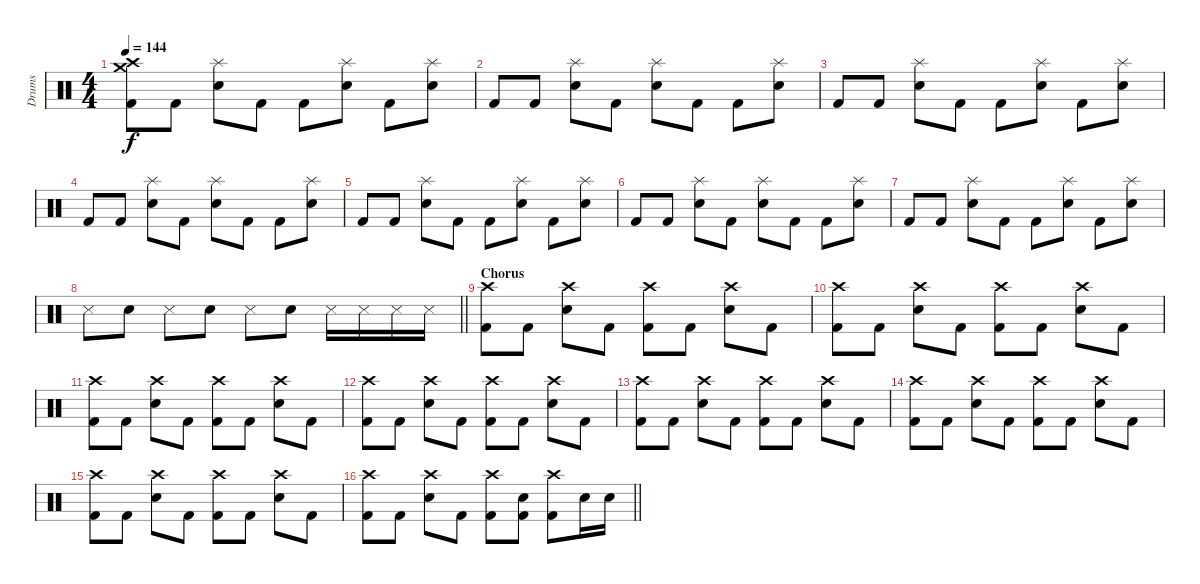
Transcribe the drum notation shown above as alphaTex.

\track ("Drums" "Drums") {instrument percussion}
\staff {score}
\articulation defaults
\ts (4 4)
\tempo 144
\clef neutral
\ks c
("Crash high (hit)" "Crash medium (hit)" "Kick (hit) 2").8{dy f} "Kick (hit) 2".8 ("Splash (hit)" "Electric Snare (hit)").8 "Kick (hit) 2".8 "Kick (hit) 2".8 ("Splash (hit)" "Electric Snare (hit)").8 "Kick (hit) 2".8 ("Splash (hit)" "Electric Snare (hit)").8 |
"Kick (hit) 2".8 "Kick (hit) 2".8 ("Splash (hit)" "Electric Snare (hit)").8 "Kick (hit) 2".8 ("Splash (hit)" "Electric Snare (hit)").8 "Kick (hit) 2".8 "Kick (hit) 2".8 ("Splash (hit)" "Electric Snare (hit)").8 |
"Kick (hit) 2".8 "Kick (hit) 2".8 ("Splash (hit)" "Electric Snare (hit)").8 "Kick (hit) 2".8 "Kick (hit) 2".8 ("Splash (hit)" "Electric Snare (hit)").8 "Kick (hit) 2".8 ("Splash (hit)" "Electric Snare (hit)").8 |
"Kick (hit) 2".8 "Kick (hit) 2".8 ("Splash (hit)" "Electric Snare (hit)").8 "Kick (hit) 2".8 ("Splash (hit)" "Electric Snare (hit)").8 "Kick (hit) 2".8 "Kick (hit) 2".8 ("Splash (hit)" "Electric Snare (hit)").8 |
"Kick (hit) 2".8 "Kick (hit) 2".8 ("Splash (hit)" "Electric Snare (hit)").8 "Kick (hit) 2".8 "Kick (hit) 2".8 ("Splash (hit)" "Electric Snare (hit)").8 "Kick (hit) 2".8 ("Splash (hit)" "Electric Snare (hit)").8 |
"Kick (hit) 2".8 "Kick (hit) 2".8 ("Splash (hit)" "Electric Snare (hit)").8 "Kick (hit) 2".8 ("Splash (hit)" "Electric Snare (hit)").8 "Kick (hit) 2".8 "Kick (hit) 2".8 ("Splash (hit)" "Electric Snare (hit)").8 |
"Kick (hit) 2".8 "Kick (hit) 2".8 ("Splash (hit)" "Electric Snare (hit)").8 "Kick (hit) 2".8 "Kick (hit) 2".8 ("Splash (hit)" "Electric Snare (hit)").8 "Kick (hit) 2".8 ("Splash (hit)" "Electric Snare (hit)").8 |
\barLineRight lightlight "Metronome (hit)".8 "Metronome (bell)".8 "Metronome (hit)".8 "Metronome (bell)".8 "Metronome (hit)".8 "Metronome (bell)".8 "Metronome (hit)".16 "Metronome (hit)".16 "Metronome (hit)".16 "Metronome (hit)".16
|
\section ("" "Chorus")
("Crash high (hit)" "Kick (hit) 2").8 "Kick (hit) 2".8 ("Crash high (hit)" "Electric Snare (hit)").8 "Kick (hit) 2".8 ("Crash high (hit)" "Kick (hit) 2").8 "Kick (hit) 2".8 ("Crash high (hit)" "Electric Snare (hit)").8 "Kick (hit) 2".8 |
("Crash high (hit)" "Kick (hit) 2").8 "Kick (hit) 2".8 ("Crash high (hit)" "Electric Snare (hit)").8 "Kick (hit) 2".8 ("Crash high (hit)" "Kick (hit) 2").8 "Kick (hit) 2".8 ("Crash high (hit)" "Electric Snare (hit)").8 "Kick (hit) 2".8 |
("Crash high (hit)" "Kick (hit) 2").8 "Kick (hit) 2".8 ("Crash high (hit)" "Electric Snare (hit)").8 "Kick (hit) 2".8 ("Crash high (hit)" "Kick (hit) 2").8 "Kick (hit) 2".8 ("Crash high (hit)" "Electric Snare (hit)").8 "Kick (hit) 2".8 |
("Crash high (hit)" "Kick (hit) 2").8 "Kick (hit) 2".8 ("Crash high (hit)" "Electric Snare (hit)").8 "Kick (hit) 2".8 ("Crash high (hit)" "Kick (hit) 2").8 "Kick (hit) 2".8 ("Crash high (hit)" "Electric Snare (hit)").8 "Kick (hit) 2".8 |
("Crash high (hit)" "Kick (hit) 2").8 "Kick (hit) 2".8 ("Crash high (hit)" "Electric Snare (hit)").8 "Kick (hit) 2".8 ("Crash high (hit)" "Kick (hit) 2").8 "Kick (hit) 2".8 ("Crash high (hit)" "Electric Snare (hit)").8 "Kick (hit) 2".8 |
("Crash high (hit)" "Kick (hit) 2").8 "Kick (hit) 2".8 ("Crash high (hit)" "Electric Snare (hit)").8 "Kick (hit) 2".8 ("Crash high (hit)" "Kick (hit) 2").8 "Kick (hit) 2".8 ("Crash high (hit)" "Electric Snare (hit)").8 "Kick (hit) 2".8 |
("Crash high (hit)" "Kick (hit) 2").8 "Kick (hit) 2".8 ("Crash high (hit)" "Electric Snare (hit)").8 "Kick (hit) 2".8 ("Crash high (hit)" "Kick (hit) 2").8 "Kick (hit) 2".8 ("Crash high (hit)" "Electric Snare (hit)").8 "Kick (hit) 2".8 |
\barLineRight lightlight
("Crash high (hit)" "Kick (hit) 2").8 "Kick (hit) 2".8 ("Crash high (hit)" "Electric Snare (hit)").8 "Kick (hit) 2".8 ("Crash high (hit)" "Kick (hit) 2").8 ("Electric Snare (hit)" "Kick (hit) 2").8 ("Crash high (hit)" "Kick (hit) 2").8 "Electric Snare (hit)".16 "Electric Snare (hit)".16
